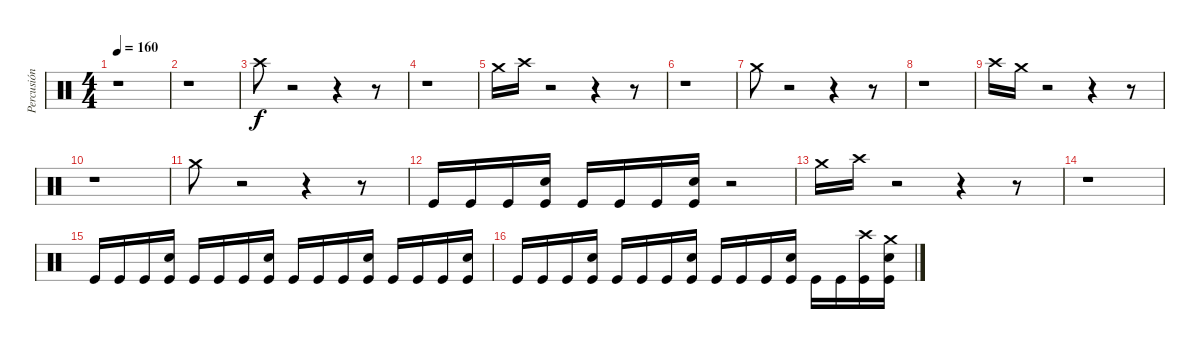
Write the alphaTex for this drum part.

\track ("Percusión" "Percusión") {instrument percussion}
\staff {score}
\articulation defaults
\ts (4 4)
\tempo 160
\clef neutral
\ks c
r.1{dy f} |
r.1 |
"Crash high (hit)".8 r.2 r.4 r.8 |
r.1 |
"Crash medium (hit)".16 "Crash high (hit)".16 r.2 r.4 r.8 |
r.1 |
"Crash medium (hit)".8 r.2 r.4 r.8 |
r.1 |
"Crash high (hit)".16 "Crash medium (hit)".16 r.2 r.4 r.8 |
r.1 |
"Crash medium (hit)".8 r.2 r.4 r.8 |
"Kick (hit)".16 "Kick (hit)".16 "Kick (hit)".16 ("Electric Snare (hit)" "Kick (hit)").16 "Kick (hit)".16 "Kick (hit)".16 "Kick (hit)".16 ("Electric Snare (hit)" "Kick (hit)").16 r.2 |
"Crash medium (hit)".16 "Crash high (hit)".16 r.2 r.4 r.8 |
r.1 |
"Kick (hit)".16 "Kick (hit)".16 "Kick (hit)".16 ("Electric Snare (hit)" "Kick (hit)").16 "Kick (hit)".16 "Kick (hit)".16 "Kick (hit)".16 ("Electric Snare (hit)" "Kick (hit)").16 "Kick (hit)".16 "Kick (hit)".16 "Kick (hit)".16 ("Electric Snare (hit)" "Kick (hit)").16 "Kick (hit)".16 "Kick (hit)".16 "Kick (hit)".16 ("Electric Snare (hit)" "Kick (hit)").16 |
"Kick (hit)".16 "Kick (hit)".16 "Kick (hit)".16 ("Electric Snare (hit)" "Kick (hit)").16 "Kick (hit)".16 "Kick (hit)".16 "Kick (hit)".16 ("Electric Snare (hit)" "Kick (hit)").16 "Kick (hit)".16 "Kick (hit)".16 "Kick (hit)".16 ("Electric Snare (hit)" "Kick (hit)").16 "Kick (hit)".16 "Kick (hit)".16 ("Crash high (hit)" "Kick (hit)").16 ("Crash medium (hit)" "Electric Snare (hit)" "Kick (hit)").16
